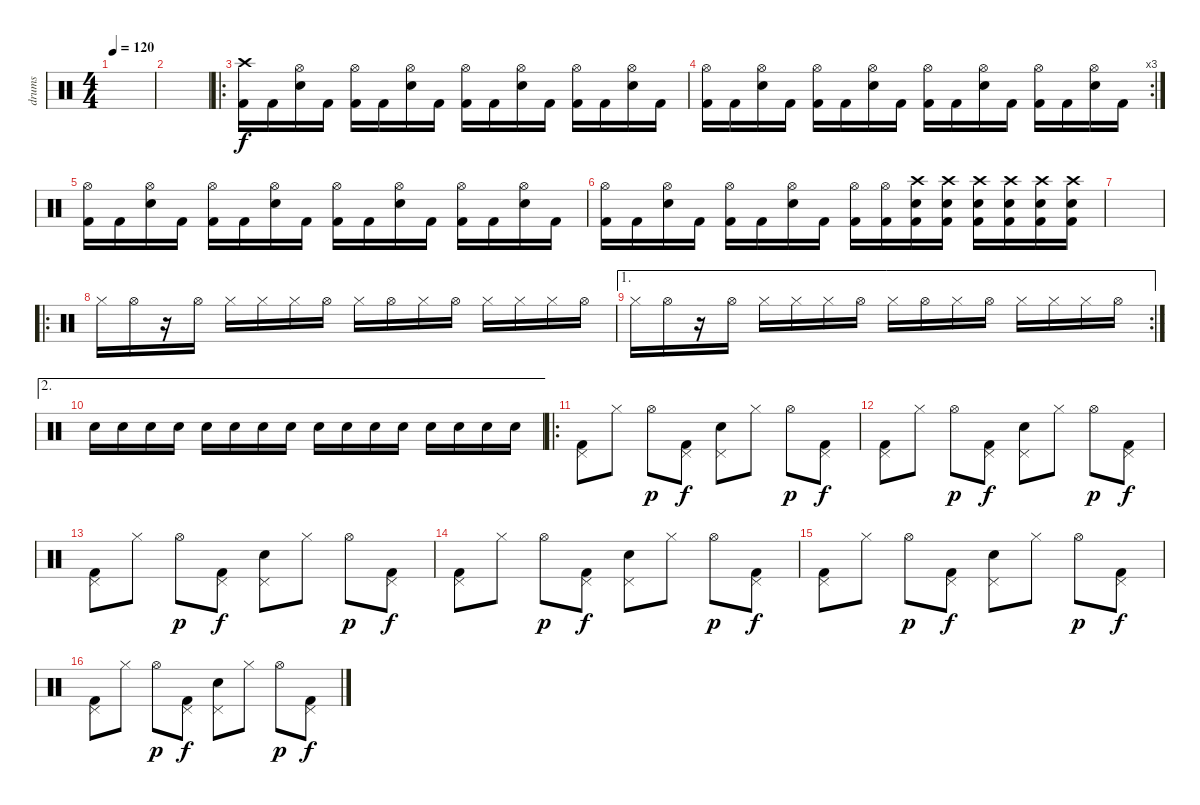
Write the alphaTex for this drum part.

\track ("drums" "drums") {instrument percussion}
\staff {score}
\articulation defaults
\ts (4 4)
\tempo 120
\clef neutral
\ks c
|
|
\ro
("Crash high (hit)" "Kick (hit) 2").16 "Kick (hit) 2".16 ("Hi-Hat (open)" "Electric Snare (hit)").16 "Kick (hit) 2".16 ("Hi-Hat (open)" "Kick (hit) 2").16 "Kick (hit) 2".16 ("Hi-Hat (open)" "Electric Snare (hit)").16 "Kick (hit) 2".16 ("Hi-Hat (open)" "Kick (hit) 2").16 "Kick (hit) 2".16 ("Hi-Hat (open)" "Electric Snare (hit)").16 "Kick (hit) 2".16 ("Hi-Hat (open)" "Kick (hit) 2").16 "Kick (hit) 2".16 ("Hi-Hat (open)" "Electric Snare (hit)").16 "Kick (hit) 2".16 |
\rc 3
("Hi-Hat (open)" "Kick (hit) 2").16 "Kick (hit) 2".16 ("Hi-Hat (open)" "Electric Snare (hit)").16 "Kick (hit) 2".16 ("Hi-Hat (open)" "Kick (hit) 2").16 "Kick (hit) 2".16 ("Hi-Hat (open)" "Electric Snare (hit)").16 "Kick (hit) 2".16 ("Hi-Hat (open)" "Kick (hit) 2").16 "Kick (hit) 2".16 ("Hi-Hat (open)" "Electric Snare (hit)").16 "Kick (hit) 2".16 ("Hi-Hat (open)" "Kick (hit) 2").16 "Kick (hit) 2".16 ("Hi-Hat (open)" "Electric Snare (hit)").16 "Kick (hit) 2".16 |
("Hi-Hat (open)" "Kick (hit) 2").16 "Kick (hit) 2".16 ("Hi-Hat (open)" "Electric Snare (hit)").16 "Kick (hit) 2".16 ("Hi-Hat (open)" "Kick (hit) 2").16 "Kick (hit) 2".16 ("Hi-Hat (open)" "Electric Snare (hit)").16 "Kick (hit) 2".16 ("Hi-Hat (open)" "Kick (hit) 2").16 "Kick (hit) 2".16 ("Hi-Hat (open)" "Electric Snare (hit)").16 "Kick (hit) 2".16 ("Hi-Hat (open)" "Kick (hit) 2").16 "Kick (hit) 2".16 ("Hi-Hat (open)" "Electric Snare (hit)").16 "Kick (hit) 2".16 |
("Hi-Hat (open)" "Kick (hit) 2").16 "Kick (hit) 2".16 ("Hi-Hat (open)" "Electric Snare (hit)").16 "Kick (hit) 2".16 ("Hi-Hat (open)" "Kick (hit) 2").16 "Kick (hit) 2".16 ("Hi-Hat (open)" "Electric Snare (hit)").16 "Kick (hit) 2".16 ("Hi-Hat (open)" "Kick (hit) 2").16 ("Hi-Hat (open)" "Kick (hit) 2").16 ("Crash high (hit)" "Kick (hit) 2" "Electric Snare (hit)").16 ("Crash high (hit)" "Kick (hit) 2" "Electric Snare (hit)").16 ("Crash high (hit)" "Kick (hit) 2" "Electric Snare (hit)").16 ("Crash high (hit)" "Kick (hit) 2" "Electric Snare (hit)").16 ("Crash high (hit)" "Kick (hit) 2" "Electric Snare (hit)").16 ("Crash high (hit)" "Kick (hit) 2" "Electric Snare (hit)").16 |
|
\ro "Hi-Hat (closed)".16 "Hi-Hat (open)".16
r.16 "Hi-Hat (open)".16 "Hi-Hat (closed)".16 "Hi-Hat (closed)".16 "Hi-Hat (closed)".16 "Hi-Hat (open)".16 "Hi-Hat (closed)".16 "Hi-Hat (open)".16 "Hi-Hat (closed)".16 "Hi-Hat (open)".16 "Hi-Hat (closed)".16 "Hi-Hat (closed)".16 "Hi-Hat (closed)".16 "Hi-Hat (open)".16 |
\ae 1
\rc 2 "Hi-Hat (closed)".16 "Hi-Hat (open)".16
r.16 "Hi-Hat (open)".16 "Hi-Hat (closed)".16 "Hi-Hat (closed)".16 "Hi-Hat (closed)".16 "Hi-Hat (open)".16 "Hi-Hat (closed)".16 "Hi-Hat (open)".16 "Hi-Hat (closed)".16 "Hi-Hat (open)".16 "Hi-Hat (closed)".16 "Hi-Hat (closed)".16 "Hi-Hat (closed)".16 "Hi-Hat (open)".16 |
\ae 2 "Electric Snare (hit)".16 "Electric Snare (hit)".16 "Electric Snare (hit)".16 "Electric Snare (hit)".16 "Electric Snare (hit)".16 "Electric Snare (hit)".16 "Electric Snare (hit)".16 "Electric Snare (hit)".16 "Electric Snare (hit)".16 "Electric Snare (hit)".16 "Electric Snare (hit)".16 "Electric Snare (hit)".16 "Electric Snare (hit)".16 "Electric Snare (hit)".16 "Electric Snare (hit)".16 "Electric Snare (hit)".16
|
\ro
("Pedal Hi-Hat (hit)" "Kick (hit) 2").8 "Hi-Hat (closed)".8 "Hi-Hat (open)".8{dy p} ("Pedal Hi-Hat (hit)" "Kick (hit) 2").8{dy f} ("Pedal Hi-Hat (hit)" "Electric Snare (hit)").8 "Hi-Hat (closed)".8 "Hi-Hat (open)".8{dy p} ("Pedal Hi-Hat (hit)" "Kick (hit) 2").8{dy f} |
("Pedal Hi-Hat (hit)" "Kick (hit) 2").8 "Hi-Hat (closed)".8 "Hi-Hat (open)".8{dy p} ("Pedal Hi-Hat (hit)" "Kick (hit) 2").8{dy f} ("Pedal Hi-Hat (hit)" "Electric Snare (hit)").8 "Hi-Hat (closed)".8 "Hi-Hat (open)".8{dy p} ("Pedal Hi-Hat (hit)" "Kick (hit) 2").8{dy f} |
("Pedal Hi-Hat (hit)" "Kick (hit) 2").8 "Hi-Hat (closed)".8 "Hi-Hat (open)".8{dy p} ("Pedal Hi-Hat (hit)" "Kick (hit) 2").8{dy f} ("Pedal Hi-Hat (hit)" "Electric Snare (hit)").8 "Hi-Hat (closed)".8 "Hi-Hat (open)".8{dy p} ("Pedal Hi-Hat (hit)" "Kick (hit) 2").8{dy f} |
("Pedal Hi-Hat (hit)" "Kick (hit) 2").8 "Hi-Hat (closed)".8 "Hi-Hat (open)".8{dy p} ("Pedal Hi-Hat (hit)" "Kick (hit) 2").8{dy f} ("Pedal Hi-Hat (hit)" "Electric Snare (hit)").8 "Hi-Hat (closed)".8 "Hi-Hat (open)".8{dy p} ("Pedal Hi-Hat (hit)" "Kick (hit) 2").8{dy f} |
("Pedal Hi-Hat (hit)" "Kick (hit) 2").8 "Hi-Hat (closed)".8 "Hi-Hat (open)".8{dy p} ("Pedal Hi-Hat (hit)" "Kick (hit) 2").8{dy f} ("Pedal Hi-Hat (hit)" "Electric Snare (hit)").8 "Hi-Hat (closed)".8 "Hi-Hat (open)".8{dy p} ("Pedal Hi-Hat (hit)" "Kick (hit) 2").8{dy f} |
("Pedal Hi-Hat (hit)" "Kick (hit) 2").8 "Hi-Hat (closed)".8 "Hi-Hat (open)".8{dy p} ("Pedal Hi-Hat (hit)" "Kick (hit) 2").8{dy f} ("Pedal Hi-Hat (hit)" "Electric Snare (hit)").8 "Hi-Hat (closed)".8 "Hi-Hat (open)".8{dy p} ("Pedal Hi-Hat (hit)" "Kick (hit) 2").8{dy f}
